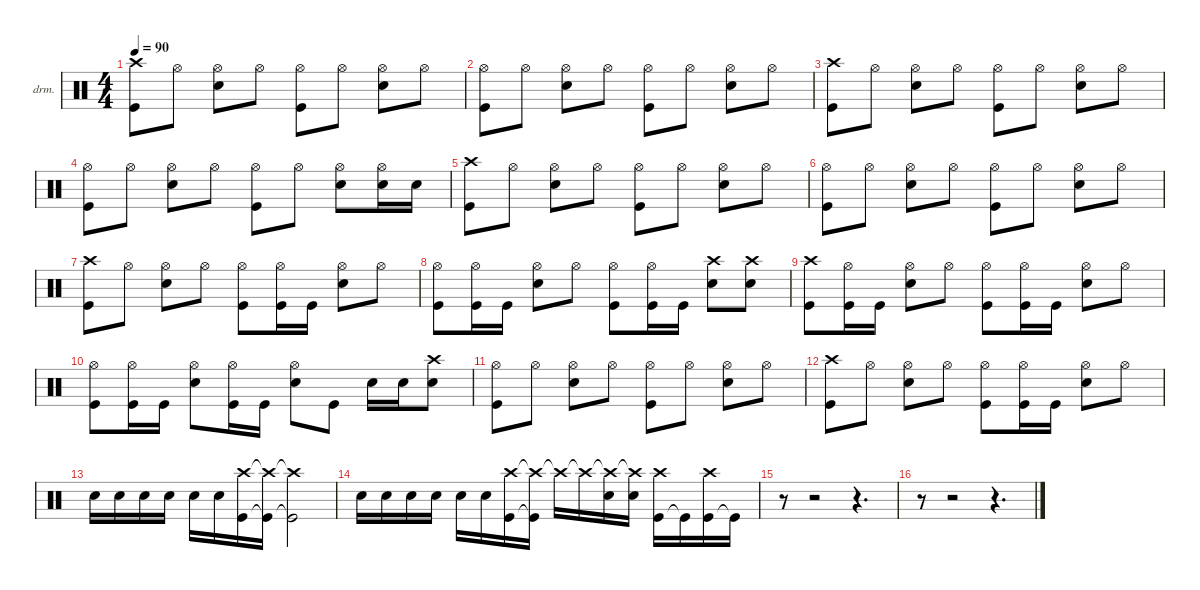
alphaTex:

\defaultSystemsLayout 4
\hideDynamics
\bracketExtendMode nobrackets
\firstSystemTrackNameOrientation horizontal
\otherSystemsTrackNameOrientation horizontal
\track ("Percussion" "drm.") {instrument percussion}
\staff {score}
\articulation defaults
\ts (4 4)
\tempo 90
\clef neutral
\ks c
("Crash high (hit)" "Kick (hit)").8{dy f beam Down} "Hi-Hat (open)".8{beam Down} ("Hi-Hat (open)" "Snare (hit) 2").8{beam Down} "Hi-Hat (open)".8{beam Down} ("Hi-Hat (open)" "Kick (hit)").8{beam Down} "Hi-Hat (open)".8{beam Down} ("Hi-Hat (open)" "Snare (hit) 2").8{beam Down} "Hi-Hat (open)".8{beam Down} |
("Hi-Hat (open)" "Kick (hit)").8{beam Down} "Hi-Hat (open)".8{beam Down} ("Hi-Hat (open)" "Snare (hit) 2").8{beam Down} "Hi-Hat (open)".8{beam Down} ("Hi-Hat (open)" "Kick (hit)").8{beam Down} "Hi-Hat (open)".8{beam Down} ("Hi-Hat (open)" "Snare (hit) 2").8{beam Down} "Hi-Hat (open)".8{beam Down} |
("Crash high (hit)" "Kick (hit)").8{beam Down} "Hi-Hat (open)".8{beam Down} ("Hi-Hat (open)" "Snare (hit) 2").8{beam Down} "Hi-Hat (open)".8{beam Down} ("Hi-Hat (open)" "Kick (hit)").8{beam Down} "Hi-Hat (open)".8{beam Down} ("Hi-Hat (open)" "Snare (hit) 2").8{beam Down} "Hi-Hat (open)".8{beam Down} |
("Hi-Hat (open)" "Kick (hit)").8{beam Down} "Hi-Hat (open)".8{beam Down} ("Hi-Hat (open)" "Snare (hit) 2").8{beam Down} "Hi-Hat (open)".8{beam Down} ("Hi-Hat (open)" "Kick (hit)").8{beam Down} "Hi-Hat (open)".8{beam Down} ("Hi-Hat (open)" "Snare (hit) 2").8{beam Down} ("Hi-Hat (open)" "Snare (hit) 2").16{beam Down} "Snare (hit) 2".16{beam Down} |
("Crash high (hit)" "Kick (hit)").8{beam Down} "Hi-Hat (open)".8{beam Down} ("Hi-Hat (open)" "Snare (hit) 2").8{beam Down} "Hi-Hat (open)".8{beam Down} ("Hi-Hat (open)" "Kick (hit)").8{beam Down} "Hi-Hat (open)".8{beam Down} ("Hi-Hat (open)" "Snare (hit) 2").8{beam Down} "Hi-Hat (open)".8{beam Down} |
("Hi-Hat (open)" "Kick (hit)").8{beam Down} "Hi-Hat (open)".8{beam Down} ("Hi-Hat (open)" "Snare (hit) 2").8{beam Down} "Hi-Hat (open)".8{beam Down} ("Hi-Hat (open)" "Kick (hit)").8{beam Down} "Hi-Hat (open)".8{beam Down} ("Hi-Hat (open)" "Snare (hit) 2").8{beam Down} "Hi-Hat (open)".8{beam Down} |
("Crash high (hit)" "Kick (hit)").8{beam Down} "Hi-Hat (open)".8{beam Down} ("Hi-Hat (open)" "Snare (hit) 2").8{beam Down} "Hi-Hat (open)".8{beam Down} ("Hi-Hat (open)" "Kick (hit)").8{beam Down} ("Hi-Hat (open)" "Kick (hit)").16{beam Down} "Kick (hit)".16{beam Down} ("Hi-Hat (open)" "Snare (hit) 2").8{beam Down} "Hi-Hat (open)".8{beam Down} |
("Hi-Hat (open)" "Kick (hit)").8{beam Down} ("Hi-Hat (open)" "Kick (hit)").16{beam Down} "Kick (hit)".16{beam Down} ("Hi-Hat (open)" "Snare (hit) 2").8{beam Down} "Hi-Hat (open)".8{beam Down} ("Hi-Hat (open)" "Kick (hit)").8{beam Down} ("Hi-Hat (open)" "Kick (hit)").16{beam Down} "Kick (hit)".16{beam Down} ("Crash high (hit)" "Snare (hit) 2").8{beam Down} ("Crash high (hit)" "Snare (hit) 2").8{beam Down} |
("Crash high (hit)" "Kick (hit)").8{beam Down} ("Hi-Hat (open)" "Kick (hit)").16{beam Down} "Kick (hit)".16{beam Down} ("Hi-Hat (open)" "Snare (hit) 2").8{beam Down} "Hi-Hat (open)".8{beam Down} ("Hi-Hat (open)" "Kick (hit)").8{beam Down} ("Hi-Hat (open)" "Kick (hit)").16{beam Down} "Kick (hit)".16{beam Down} ("Hi-Hat (open)" "Snare (hit) 2").8{beam Down} "Hi-Hat (open)".8{beam Down} |
("Hi-Hat (open)" "Kick (hit)").8{beam Down} ("Hi-Hat (open)" "Kick (hit)").16{beam Down} "Kick (hit)".16{beam Down} ("Hi-Hat (open)" "Snare (hit) 2").8{beam Down} ("Hi-Hat (open)" "Kick (hit)").16{beam Down} "Kick (hit)".16{beam Down} ("Hi-Hat (open)" "Snare (hit) 2").8{beam Down} "Kick (hit)".8{beam Down} "Snare (hit) 2".16{beam Down} "Snare (hit) 2".16{beam Down} ("Crash high (hit)" "Snare (hit) 2").8{beam Down} |
("Hi-Hat (open)" "Kick (hit)").8{beam Down} "Hi-Hat (open)".8{beam Down} ("Hi-Hat (open)" "Snare (hit) 2").8{beam Down} "Hi-Hat (open)".8{beam Down} ("Hi-Hat (open)" "Kick (hit)").8{beam Down} "Hi-Hat (open)".8{beam Down} ("Hi-Hat (open)" "Snare (hit) 2").8{beam Down} "Hi-Hat (open)".8{beam Down} |
("Crash high (hit)" "Kick (hit)").8{beam Down} "Hi-Hat (open)".8{beam Down} ("Hi-Hat (open)" "Snare (hit) 2").8{beam Down} "Hi-Hat (open)".8{beam Down} ("Hi-Hat (open)" "Kick (hit)").8{beam Down} ("Hi-Hat (open)" "Kick (hit)").16{beam Down} "Kick (hit)".16{beam Down} ("Hi-Hat (open)" "Snare (hit) 2").8{beam Down} "Hi-Hat (open)".8{beam Down} |
"Snare (hit) 2".16{beam Down} "Snare (hit) 2".16{beam Down} "Snare (hit) 2".16{beam Down} "Snare (hit) 2".16{beam Down} "Snare (hit) 2".16{beam Down} "Snare (hit) 2".16{beam Down} ("Crash high (hit)" "Kick (hit)").16{beam Down} ("Crash high (hit)"{t} "Kick (hit)"{t}).16{beam Down} ("Crash high (hit)"{t} "Kick (hit)"{t}).2{beam Down} |
"Snare (hit) 2".16{beam Down} "Snare (hit) 2".16{beam Down} "Snare (hit) 2".16{beam Down} "Snare (hit) 2".16{beam Down} "Snare (hit) 2".16{beam Down} "Snare (hit) 2".16{beam Down} ("Crash high (hit)" "Kick (hit)").16{beam Down} ("Crash high (hit)"{t} "Kick (hit)"{t}).16{beam Down} "Crash high (hit)"{t}.16{beam Down} "Crash high (hit)"{t}.16{beam Down} ("Crash high (hit)"{t} "Snare (hit) 2").16{beam Down} ("Crash high (hit)"{t} "Snare (hit) 2").16{beam Down} ("Kick (hit)" "Crash high (hit)").16{beam Down} "Kick (hit)"{t}.16{beam Down} ("Kick (hit)" "Crash high (hit)").16{beam Down} "Kick (hit)"{t}.16{beam Down} |
r.8{beam Down} r.2{beam Down} r.4{d beam Down} |
r.8{beam Down} r.2{beam Down} r.4{d beam Down}
